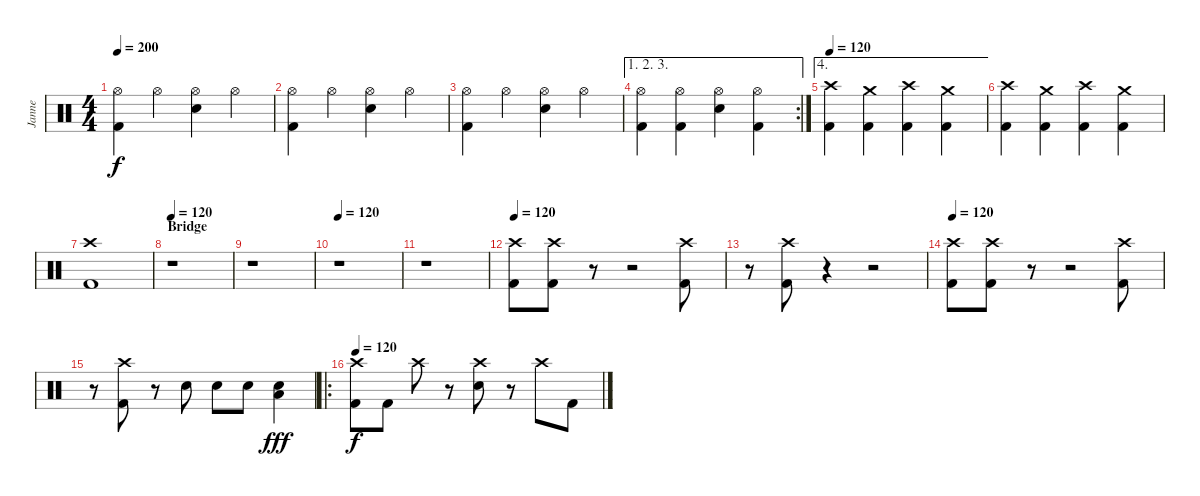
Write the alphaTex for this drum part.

\track ("Janne" "Janne") {instrument percussion}
\staff {score}
\articulation defaults
\ts (4 4)
\tempo 200
\clef neutral
\ks c
("Hi-Hat (open)" "Kick (hit) 2").4{dy f} "Hi-Hat (open)".4 ("Hi-Hat (open)" "Electric Snare (hit)").4 "Hi-Hat (open)".4 |
("Hi-Hat (open)" "Kick (hit) 2").4 "Hi-Hat (open)".4 ("Hi-Hat (open)" "Electric Snare (hit)").4 "Hi-Hat (open)".4 |
("Hi-Hat (open)" "Kick (hit) 2").4 "Hi-Hat (open)".4 ("Hi-Hat (open)" "Electric Snare (hit)").4 "Hi-Hat (open)".4 |
\ae (1 2 3)
\rc 2
("Hi-Hat (open)" "Kick (hit) 2").4 ("Hi-Hat (open)" "Kick (hit) 2").4 ("Hi-Hat (open)" "Electric Snare (hit)").4 ("Hi-Hat (open)" "Kick (hit) 2").4 |
\ae 4
\tempo 120
("Crash high (hit)" "Kick (hit) 2").4 ("Crash medium (hit)" "Kick (hit) 2").4 ("Crash high (hit)" "Kick (hit) 2").4 ("Crash medium (hit)" "Kick (hit) 2").4 |
("Crash high (hit)" "Kick (hit) 2").4 ("Crash medium (hit)" "Kick (hit) 2").4 ("Crash high (hit)" "Kick (hit) 2").4 ("Crash medium (hit)" "Kick (hit) 2").4 |
("Crash high (hit)" "Kick (hit) 2").1 |
\section ("" "Bridge")
\tempo 120
r.1 |
r.1 |
\tempo 120
r.1 |
r.1 |
\tempo 120
("Crash high (hit)" "Kick (hit) 2").8 ("Crash high (hit)" "Kick (hit) 2").8 r.8 r.2 ("Crash high (hit)" "Kick (hit) 2").8 |
r.8 ("Crash high (hit)" "Kick (hit) 2").8 r.4 r.2 |
\tempo 120
("Crash high (hit)" "Kick (hit) 2").8 ("Crash high (hit)" "Kick (hit) 2").8 r.8 r.2 ("Crash high (hit)" "Kick (hit) 2").8 |
r.8 ("Crash high (hit)" "Kick (hit) 2").8 r.8 "Electric Snare (hit)".8 "Electric Snare (hit)".8 "Electric Snare (hit)".8 ("Low Floor Tom (hit)" "Electric Snare (hit)").4{dy fff} |
\ro
\tempo 120
("Crash high (hit)" "Kick (hit) 2").8{dy f} "Kick (hit) 2".8 "Crash high (hit)".8 r.8 ("Crash high (hit)" "Electric Snare (hit)").8 r.8 "Crash high (hit)".8 "Kick (hit) 2".8
